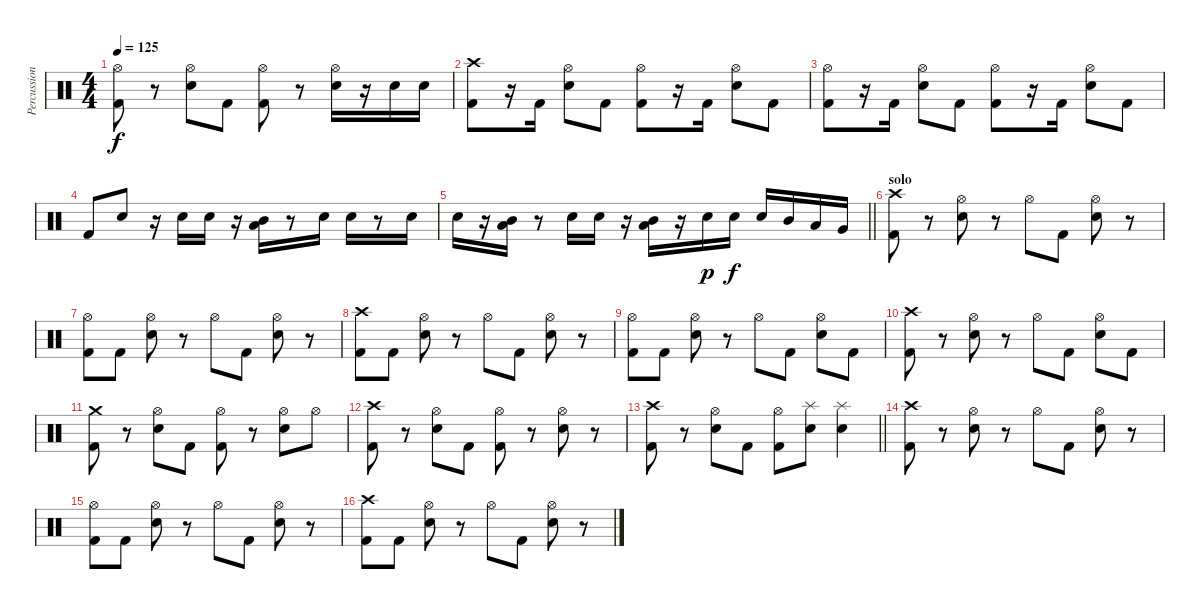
\track ("Percussion" "Percussion") {instrument percussion}
\staff {score}
\articulation defaults
\ts (4 4)
\tempo 125
\clef neutral
\ks c
("Hi-Hat (open)" "Kick (hit) 2").8{dy f} r.8 ("Hi-Hat (open)" "Snare (hit) 2").8 "Kick (hit) 2".8 ("Hi-Hat (open)" "Kick (hit) 2").8 r.8 ("Hi-Hat (open)" "Snare (hit) 2").16 r.16 "Snare (hit) 2".16 "Snare (hit) 2".16 |
("Crash high (hit)" "Kick (hit) 2").8 r.16 "Kick (hit) 2".16 ("Hi-Hat (open)" "Snare (hit) 2").8 "Kick (hit) 2".8 ("Hi-Hat (open)" "Kick (hit) 2").8 r.16 "Kick (hit) 2".16 ("Hi-Hat (open)" "Snare (hit) 2").8 "Kick (hit) 2".8 |
("Hi-Hat (open)" "Kick (hit) 2").8 r.16 "Kick (hit) 2".16 ("Hi-Hat (open)" "Snare (hit) 2").8 "Kick (hit) 2".8 ("Hi-Hat (open)" "Kick (hit) 2").8 r.16 "Kick (hit) 2".16 ("Hi-Hat (open)" "Snare (hit) 2").8 "Kick (hit) 2".8 |
"Kick (hit) 2".8 "Snare (hit) 2".8 r.16 "Snare (hit) 2".16 "Snare (hit) 2".16 r.16 ("Mid Tom (hit)" "Low Tom (hit)").16 r.8 "Snare (hit) 2".16 "Snare (hit) 2".16 r.8 "Snare (hit) 2".16 |
\barLineRight lightlight "Snare (hit) 2".16
r.16 ("Mid Tom (hit)" "Low Tom (hit)").16 r.8 "Snare (hit) 2".16 "Snare (hit) 2".16 r.16 ("Mid Tom (hit)" "Low Tom (hit)").16 r.16 "Snare (hit) 2".16{dy p} "Snare (hit) 2".16{dy f} "Snare (hit) 2".16 "Mid Tom (hit)".16 "Low Tom (hit)".16 "Very Low Tom (hit)".16 |
\section ("" "solo")
("Crash high (hit)" "Kick (hit) 2").8 r.8 ("Hi-Hat (open)" "Snare (hit) 2").8 r.8 "Hi-Hat (open)".8 "Kick (hit) 2".8 ("Hi-Hat (open)" "Snare (hit) 2").8 r.8 |
("Hi-Hat (open)" "Kick (hit) 2").8 "Kick (hit) 2".8 ("Hi-Hat (open)" "Snare (hit) 2").8 r.8 "Hi-Hat (open)".8 "Kick (hit) 2".8 ("Hi-Hat (open)" "Snare (hit) 2").8 r.8 |
("Crash high (hit)" "Kick (hit) 2").8 "Kick (hit) 2".8 ("Hi-Hat (open)" "Snare (hit) 2").8 r.8 "Hi-Hat (open)".8 "Kick (hit) 2".8 ("Hi-Hat (open)" "Snare (hit) 2").8 r.8 |
("Hi-Hat (open)" "Kick (hit) 2").8 "Kick (hit) 2".8 ("Hi-Hat (open)" "Snare (hit) 2").8 r.8 "Hi-Hat (open)".8 "Kick (hit) 2".8 ("Hi-Hat (open)" "Snare (hit) 2").8 "Kick (hit) 2".8 |
("Crash high (hit)" "Kick (hit) 2").8 r.8 ("Hi-Hat (open)" "Snare (hit) 2").8 r.8 "Hi-Hat (open)".8 "Kick (hit) 2".8 ("Hi-Hat (open)" "Snare (hit) 2").8 "Kick (hit) 2".8 |
("Crash medium (hit)" "Kick (hit) 2").8 r.8 ("Hi-Hat (open)" "Snare (hit) 2").8 "Kick (hit) 2".8 ("Hi-Hat (open)" "Kick (hit) 2").8 r.8 ("Hi-Hat (open)" "Snare (hit) 2").8 "Hi-Hat (open)".8 |
("Crash high (hit)" "Kick (hit) 2").8 r.8 ("Hi-Hat (open)" "Snare (hit) 2").8 "Kick (hit) 2".8 ("Hi-Hat (open)" "Kick (hit) 2").8 r.8 ("Hi-Hat (open)" "Snare (hit) 2").8 r.8 |
\barLineRight lightlight
("Crash high (hit)" "Kick (hit) 2").8 r.8 ("Hi-Hat (open)" "Snare (hit) 2").8 "Kick (hit) 2".8 ("Hi-Hat (open)" "Kick (hit) 2").8 ("Splash (hit)" "Snare (hit) 2").8 ("Splash (hit)" "Snare (hit) 2").4 |
("Crash high (hit)" "Kick (hit) 2").8 r.8 ("Hi-Hat (open)" "Snare (hit) 2").8 r.8 "Hi-Hat (open)".8 "Kick (hit) 2".8 ("Hi-Hat (open)" "Snare (hit) 2").8 r.8 |
("Hi-Hat (open)" "Kick (hit) 2").8 "Kick (hit) 2".8 ("Hi-Hat (open)" "Snare (hit) 2").8 r.8 "Hi-Hat (open)".8 "Kick (hit) 2".8 ("Hi-Hat (open)" "Snare (hit) 2").8 r.8 |
("Crash high (hit)" "Kick (hit) 2").8 "Kick (hit) 2".8 ("Hi-Hat (open)" "Snare (hit) 2").8 r.8 "Hi-Hat (open)".8 "Kick (hit) 2".8 ("Hi-Hat (open)" "Snare (hit) 2").8 r.8
